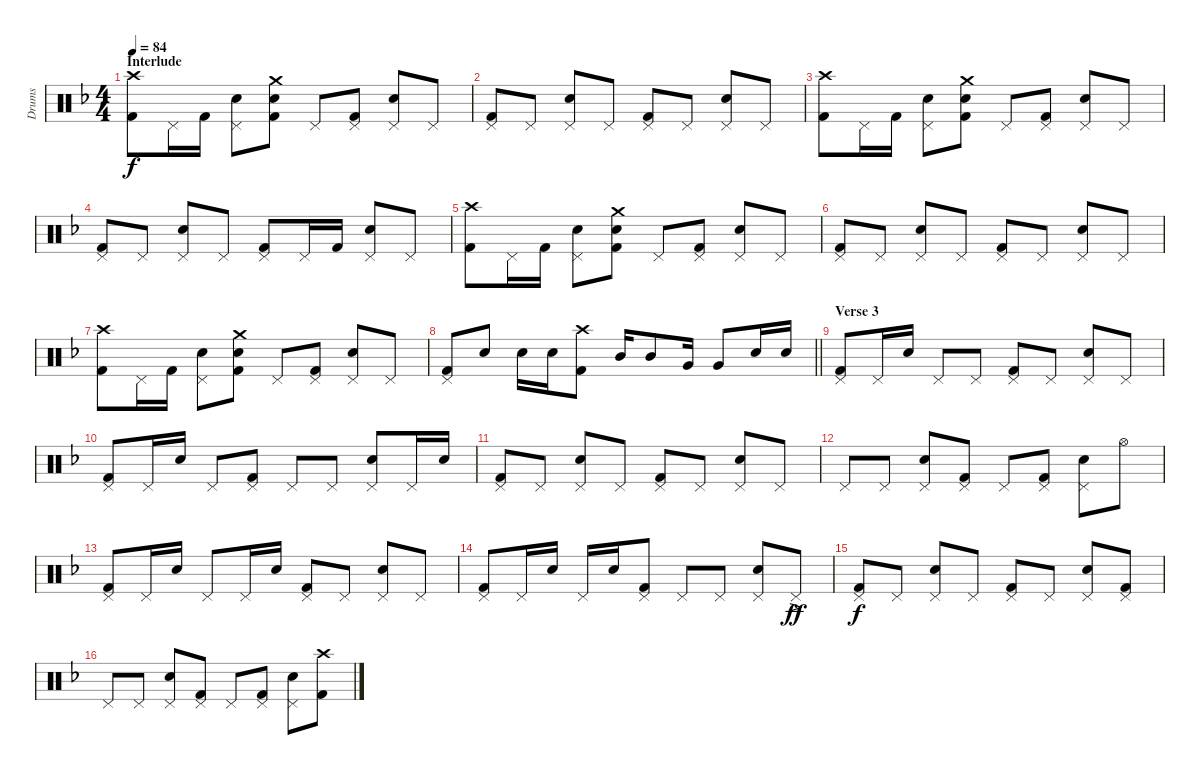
\track ("Drums" "Drums") {instrument percussion}
\staff {score}
\articulation defaults
\ts (4 4)
\section ("" "Interlude")
\tempo 84
\clef neutral
\ks f
("Crash high (hit)" "Kick (hit) 2").8{dy f} "Pedal Hi-Hat (hit)".16 "Kick (hit) 2".16 ("Pedal Hi-Hat (hit)" "Snare (hit) 2").8 ("Crash medium (hit)" "Snare (hit) 2" "Kick (hit) 2").8 "Pedal Hi-Hat (hit)".8 ("Pedal Hi-Hat (hit)" "Kick (hit) 2").8 ("Pedal Hi-Hat (hit)" "Snare (hit) 2").8 "Pedal Hi-Hat (hit)".8 |
("Pedal Hi-Hat (hit)" "Kick (hit) 2").8 "Pedal Hi-Hat (hit)".8 ("Pedal Hi-Hat (hit)" "Snare (hit) 2").8 "Pedal Hi-Hat (hit)".8 ("Pedal Hi-Hat (hit)" "Kick (hit) 2").8 "Pedal Hi-Hat (hit)".8 ("Pedal Hi-Hat (hit)" "Snare (hit) 2").8 "Pedal Hi-Hat (hit)".8 |
("Crash high (hit)" "Kick (hit) 2").8 "Pedal Hi-Hat (hit)".16 "Kick (hit) 2".16 ("Pedal Hi-Hat (hit)" "Snare (hit) 2").8 ("Crash medium (hit)" "Snare (hit) 2" "Kick (hit) 2").8 "Pedal Hi-Hat (hit)".8 ("Pedal Hi-Hat (hit)" "Kick (hit) 2").8 ("Pedal Hi-Hat (hit)" "Snare (hit) 2").8 "Pedal Hi-Hat (hit)".8 |
("Pedal Hi-Hat (hit)" "Kick (hit) 2").8 "Pedal Hi-Hat (hit)".8 ("Pedal Hi-Hat (hit)" "Snare (hit) 2").8 "Pedal Hi-Hat (hit)".8 ("Pedal Hi-Hat (hit)" "Kick (hit) 2").8 "Pedal Hi-Hat (hit)".16 "Kick (hit) 2".16 ("Pedal Hi-Hat (hit)" "Snare (hit) 2").8 "Pedal Hi-Hat (hit)".8 |
("Crash high (hit)" "Kick (hit) 2").8 "Pedal Hi-Hat (hit)".16 "Kick (hit) 2".16 ("Pedal Hi-Hat (hit)" "Snare (hit) 2").8 ("Crash medium (hit)" "Snare (hit) 2" "Kick (hit) 2").8 "Pedal Hi-Hat (hit)".8 ("Pedal Hi-Hat (hit)" "Kick (hit) 2").8 ("Pedal Hi-Hat (hit)" "Snare (hit) 2").8 "Pedal Hi-Hat (hit)".8 |
("Pedal Hi-Hat (hit)" "Kick (hit) 2").8 "Pedal Hi-Hat (hit)".8 ("Pedal Hi-Hat (hit)" "Snare (hit) 2").8 "Pedal Hi-Hat (hit)".8 ("Pedal Hi-Hat (hit)" "Kick (hit) 2").8 "Pedal Hi-Hat (hit)".8 ("Pedal Hi-Hat (hit)" "Snare (hit) 2").8 "Pedal Hi-Hat (hit)".8 |
("Crash high (hit)" "Kick (hit) 2").8 "Pedal Hi-Hat (hit)".16 "Kick (hit) 2".16 ("Pedal Hi-Hat (hit)" "Snare (hit) 2").8 ("Crash medium (hit)" "Snare (hit) 2" "Kick (hit) 2").8 "Pedal Hi-Hat (hit)".8 ("Pedal Hi-Hat (hit)" "Kick (hit) 2").8 ("Pedal Hi-Hat (hit)" "Snare (hit) 2").8 "Pedal Hi-Hat (hit)".8 |
\barLineRight lightlight
("Pedal Hi-Hat (hit)" "Kick (hit) 2").8 "Snare (hit) 2".8 "Snare (hit) 2".16 "Snare (hit) 2".16 ("Crash high (hit)" "Kick (hit) 2").8 "Mid Tom (hit)".16 "Mid Tom (hit)".8 "Very Low Tom (hit)".16 "Very Low Tom (hit)".8 "Snare (hit) 2".16 "Snare (hit) 2".16 |
\section ("" "Verse 3")
("Pedal Hi-Hat (hit)" "Kick (hit) 2").8 "Pedal Hi-Hat (hit)".16 "Snare (hit) 2".16 "Pedal Hi-Hat (hit)".8 "Pedal Hi-Hat (hit)".8 ("Pedal Hi-Hat (hit)" "Kick (hit) 2").8 "Pedal Hi-Hat (hit)".8 ("Pedal Hi-Hat (hit)" "Snare (hit) 2").8 "Pedal Hi-Hat (hit)".8 |
("Pedal Hi-Hat (hit)" "Kick (hit) 2").8 "Pedal Hi-Hat (hit)".16 "Snare (hit) 2".16 "Pedal Hi-Hat (hit)".8 ("Pedal Hi-Hat (hit)" "Kick (hit) 2").8 "Pedal Hi-Hat (hit)".8 "Pedal Hi-Hat (hit)".8 ("Pedal Hi-Hat (hit)" "Snare (hit) 2").8 "Pedal Hi-Hat (hit)".16 "Snare (hit) 2".16 |
("Pedal Hi-Hat (hit)" "Kick (hit) 2").8 "Pedal Hi-Hat (hit)".8 ("Pedal Hi-Hat (hit)" "Snare (hit) 2").8 "Pedal Hi-Hat (hit)".8 ("Pedal Hi-Hat (hit)" "Kick (hit) 2").8 "Pedal Hi-Hat (hit)".8 ("Pedal Hi-Hat (hit)" "Snare (hit) 2").8 "Pedal Hi-Hat (hit)".8 |
"Pedal Hi-Hat (hit)".8 "Pedal Hi-Hat (hit)".8 ("Pedal Hi-Hat (hit)" "Snare (hit) 2").8 ("Pedal Hi-Hat (hit)" "Kick (hit) 2").8 "Pedal Hi-Hat (hit)".8 ("Pedal Hi-Hat (hit)" "Kick (hit) 2").8 ("Pedal Hi-Hat (hit)" "Snare (hit) 2").8 "Hi-Hat (open)".8 |
("Pedal Hi-Hat (hit)" "Kick (hit) 2").8 "Pedal Hi-Hat (hit)".16 "Snare (hit) 2".16 "Pedal Hi-Hat (hit)".8 "Pedal Hi-Hat (hit)".16 "Snare (hit) 2".16 ("Pedal Hi-Hat (hit)" "Kick (hit) 2").8 "Pedal Hi-Hat (hit)".8 ("Pedal Hi-Hat (hit)" "Snare (hit) 2").8 "Pedal Hi-Hat (hit)".8 |
("Pedal Hi-Hat (hit)" "Kick (hit) 2").8 "Pedal Hi-Hat (hit)".16 "Snare (hit) 2".16 "Pedal Hi-Hat (hit)".16 "Snare (hit) 2".16 ("Pedal Hi-Hat (hit)" "Kick (hit) 2").8 "Pedal Hi-Hat (hit)".8 "Pedal Hi-Hat (hit)".8 ("Pedal Hi-Hat (hit)" "Snare (hit) 2").8 "Pedal Hi-Hat (hit)"{ac}.8{dy ff} |
("Pedal Hi-Hat (hit)" "Kick (hit) 2").8{dy f} "Pedal Hi-Hat (hit)".8 ("Pedal Hi-Hat (hit)" "Snare (hit) 2").8 "Pedal Hi-Hat (hit)".8 ("Pedal Hi-Hat (hit)" "Kick (hit) 2").8 "Pedal Hi-Hat (hit)".8 ("Pedal Hi-Hat (hit)" "Snare (hit) 2").8 ("Pedal Hi-Hat (hit)" "Kick (hit) 2").8 |
"Pedal Hi-Hat (hit)".8 "Pedal Hi-Hat (hit)".8 ("Pedal Hi-Hat (hit)" "Snare (hit) 2").8 ("Pedal Hi-Hat (hit)" "Kick (hit) 2").8 "Pedal Hi-Hat (hit)".8 ("Pedal Hi-Hat (hit)" "Kick (hit) 2").8 ("Pedal Hi-Hat (hit)" "Snare (hit) 2").8 ("Crash high (hit)" "Kick (hit) 2").8
